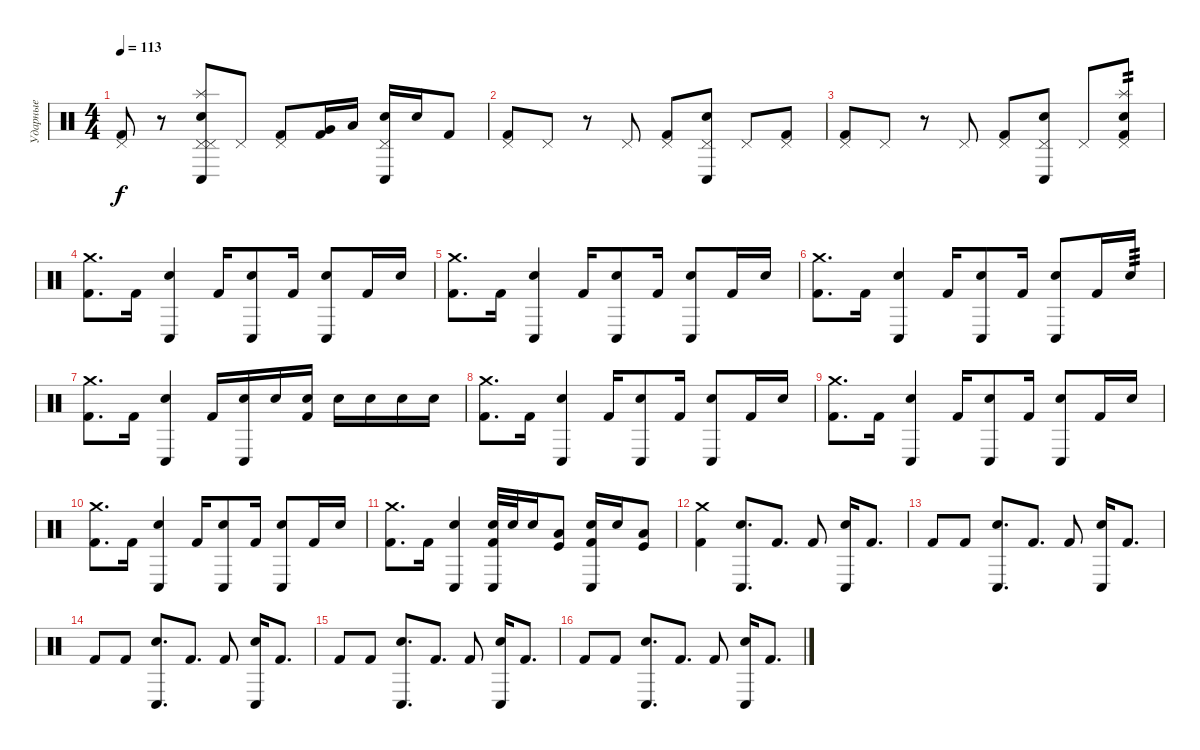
\track ("Ударные" "Ударные") {instrument percussion}
\staff {score}
\articulation defaults
\ts (4 4)
\tempo 113
\clef neutral
\ks c
("Pedal Hi-Hat (hit)" "Kick (hit) 2").8{dy f} r.8 ("Pedal Hi-Hat (hit)" "Splash (hit)" "Electric Snare (hit)" "Conga low (hit)" "Pedal Hi-Hat (hit)").8 "Pedal Hi-Hat (hit)".8 ("Pedal Hi-Hat (hit)" "Kick (hit) 2").8 ("Very Low Tom (hit)" "Kick (hit) 2").16 "Low Floor Tom (hit)".16 ("Pedal Hi-Hat (hit)" "Electric Snare (hit)" "Conga low (hit)").16 "Electric Snare (hit)".16 "Kick (hit) 2".8 |
("Pedal Hi-Hat (hit)" "Kick (hit) 2").8 "Pedal Hi-Hat (hit)".8 r.8 "Pedal Hi-Hat (hit)".8 ("Pedal Hi-Hat (hit)" "Kick (hit) 2").8 ("Pedal Hi-Hat (hit)" "Electric Snare (hit)" "Conga low (hit)").8 "Pedal Hi-Hat (hit)".8 ("Pedal Hi-Hat (hit)" "Kick (hit) 2").8 |
("Pedal Hi-Hat (hit)" "Kick (hit) 2").8 "Pedal Hi-Hat (hit)".8 r.8 "Pedal Hi-Hat (hit)".8 ("Pedal Hi-Hat (hit)" "Kick (hit) 2").8 ("Pedal Hi-Hat (hit)" "Electric Snare (hit)" "Conga low (hit)").8 "Pedal Hi-Hat (hit)".8 ("Pedal Hi-Hat (hit)" "Splash (hit)" "Electric Snare (hit)" "Kick (hit) 2").8{tp 2} |
("Crash medium (hit)" "Kick (hit) 2").8{d} "Kick (hit) 2".16 ("Electric Snare (hit)" "Conga low (hit)").4 "Kick (hit) 2".16 ("Electric Snare (hit)" "Conga low (hit)").8 "Kick (hit) 2".16 ("Electric Snare (hit)" "Conga low (hit)").8 "Kick (hit) 2".16 "Electric Snare (hit)".16 |
("Crash medium (hit)" "Kick (hit) 2").8{d} "Kick (hit) 2".16 ("Electric Snare (hit)" "Conga low (hit)").4 "Kick (hit) 2".16 ("Electric Snare (hit)" "Conga low (hit)").8 "Kick (hit) 2".16 ("Electric Snare (hit)" "Conga low (hit)").8 "Kick (hit) 2".16 "Electric Snare (hit)".16 |
("Crash medium (hit)" "Kick (hit) 2").8{d} "Kick (hit) 2".16 ("Electric Snare (hit)" "Conga low (hit)").4 "Kick (hit) 2".16 ("Electric Snare (hit)" "Conga low (hit)").8 "Kick (hit) 2".16 ("Electric Snare (hit)" "Conga low (hit)").8 "Kick (hit) 2".16 "Electric Snare (hit)".16{tp 3} |
("Crash medium (hit)" "Kick (hit) 2").8{d} "Kick (hit) 2".16 ("Electric Snare (hit)" "Conga low (hit)").4 "Kick (hit) 2".16 ("Electric Snare (hit)" "Conga low (hit)").16 "Electric Snare (hit)".16 ("Electric Snare (hit)" "Kick (hit) 2").16 "Electric Snare (hit)".16 "Electric Snare (hit)".16 "Electric Snare (hit)".16 "Electric Snare (hit)".16 |
("Crash medium (hit)" "Kick (hit) 2").8{d} "Kick (hit) 2".16 ("Electric Snare (hit)" "Conga low (hit)").4 "Kick (hit) 2".16 ("Electric Snare (hit)" "Conga low (hit)").8 "Kick (hit) 2".16 ("Electric Snare (hit)" "Conga low (hit)").8 "Kick (hit) 2".16 "Electric Snare (hit)".16 |
("Crash medium (hit)" "Kick (hit) 2").8{d} "Kick (hit) 2".16 ("Electric Snare (hit)" "Conga low (hit)").4 "Kick (hit) 2".16 ("Electric Snare (hit)" "Conga low (hit)").8 "Kick (hit) 2".16 ("Electric Snare (hit)" "Conga low (hit)").8 "Kick (hit) 2".16 "Electric Snare (hit)".16 |
("Crash medium (hit)" "Kick (hit) 2").8{d} "Kick (hit) 2".16 ("Electric Snare (hit)" "Conga low (hit)").4 "Kick (hit) 2".16 ("Electric Snare (hit)" "Conga low (hit)").8 "Kick (hit) 2".16 ("Electric Snare (hit)" "Conga low (hit)").8 "Kick (hit) 2".16 "Electric Snare (hit)".16 |
("Crash medium (hit)" "Kick (hit) 2").8{d} "Kick (hit) 2".16 ("Electric Snare (hit)" "Conga low (hit)").4 ("Electric Snare (hit)" "Conga low (hit)" "Kick (hit) 2").32 "Electric Snare (hit)".32 "Electric Snare (hit)".16 ("Low Floor Tom (hit)" "Kick (hit)").8 ("Electric Snare (hit)" "Conga low (hit)" "Kick (hit) 2").16 "Electric Snare (hit)".16 ("Low Floor Tom (hit)" "Kick (hit)").8 |
("Crash medium (hit)" "Kick (hit) 2").4 ("Electric Snare (hit)" "Conga low (hit)").8{d} "Kick (hit) 2".8{d} "Kick (hit) 2".8 ("Electric Snare (hit)" "Conga low (hit)").16 "Kick (hit) 2".8{d} |
"Kick (hit) 2".8 "Kick (hit) 2".8 ("Electric Snare (hit)" "Conga low (hit)").8{d} "Kick (hit) 2".8{d} "Kick (hit) 2".8 ("Electric Snare (hit)" "Conga low (hit)").16 "Kick (hit) 2".8{d} |
"Kick (hit) 2".8 "Kick (hit) 2".8 ("Electric Snare (hit)" "Conga low (hit)").8{d} "Kick (hit) 2".8{d} "Kick (hit) 2".8 ("Electric Snare (hit)" "Conga low (hit)").16 "Kick (hit) 2".8{d} |
"Kick (hit) 2".8 "Kick (hit) 2".8 ("Electric Snare (hit)" "Conga low (hit)").8{d} "Kick (hit) 2".8{d} "Kick (hit) 2".8 ("Electric Snare (hit)" "Conga low (hit)").16 "Kick (hit) 2".8{d} |
"Kick (hit) 2".8 "Kick (hit) 2".8 ("Electric Snare (hit)" "Conga low (hit)").8{d} "Kick (hit) 2".8{d} "Kick (hit) 2".8 ("Electric Snare (hit)" "Conga low (hit)").16 "Kick (hit) 2".8{d}
